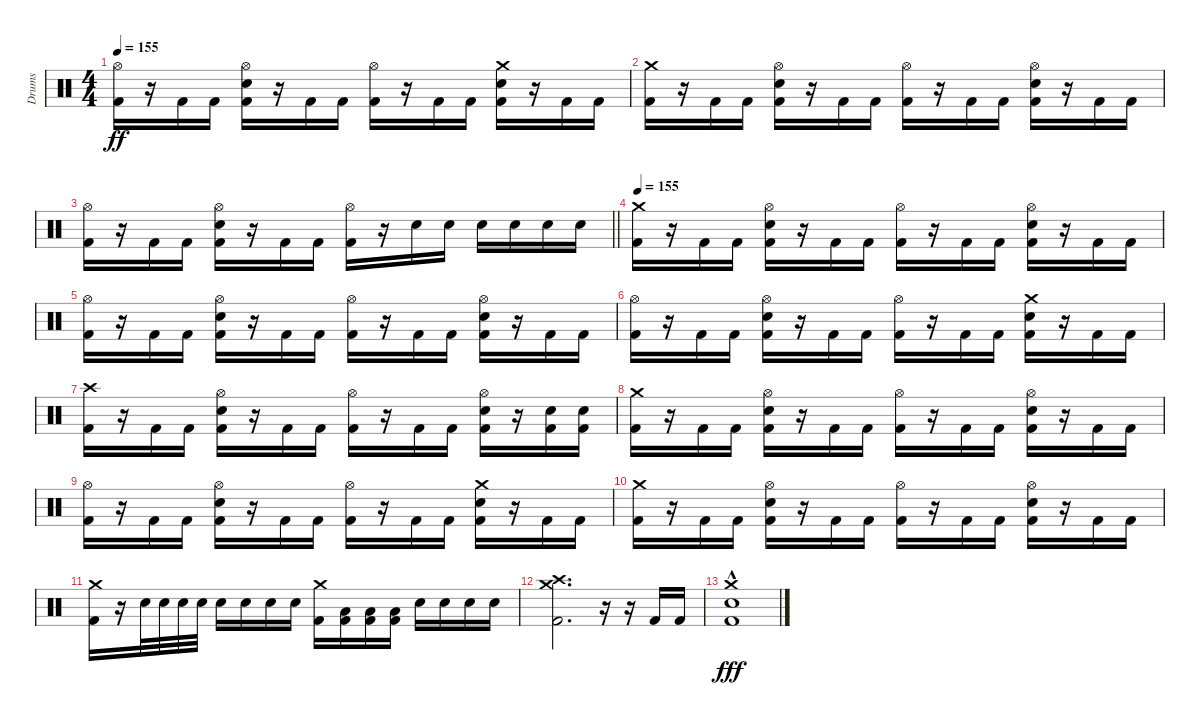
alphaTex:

\track ("Drums" "Drums") {solo instrument percussion}
\staff {score}
\articulation defaults
\ts (4 4)
\tempo 155
\clef neutral
\ks c
("Hi-Hat (open)" "Kick (hit) 2").16{dy ff} r.16 "Kick (hit) 2".16 "Kick (hit) 2".16 ("Hi-Hat (open)" "Electric Snare (hit)" "Kick (hit) 2").16 r.16 "Kick (hit) 2".16 "Kick (hit) 2".16 ("Hi-Hat (open)" "Kick (hit) 2").16 r.16 "Kick (hit) 2".16 "Kick (hit) 2".16 ("Electric Snare (hit)" "Crash medium (hit)" "Kick (hit) 2").16 r.16 "Kick (hit) 2".16 "Kick (hit) 2".16 |
("Crash medium (hit)" "Kick (hit) 2").16 r.16 "Kick (hit) 2".16 "Kick (hit) 2".16 ("Hi-Hat (open)" "Electric Snare (hit)" "Kick (hit) 2").16 r.16 "Kick (hit) 2".16 "Kick (hit) 2".16 ("Hi-Hat (open)" "Kick (hit) 2").16 r.16 "Kick (hit) 2".16 "Kick (hit) 2".16 ("Electric Snare (hit)" "Hi-Hat (open)" "Kick (hit) 2").16 r.16 "Kick (hit) 2".16 "Kick (hit) 2".16 |
\barLineRight lightlight
("Hi-Hat (open)" "Kick (hit) 2").16 r.16 "Kick (hit) 2".16 "Kick (hit) 2".16 ("Hi-Hat (open)" "Electric Snare (hit)" "Kick (hit) 2").16 r.16 "Kick (hit) 2".16 "Kick (hit) 2".16 ("Hi-Hat (open)" "Kick (hit) 2").16 r.16 "Electric Snare (hit)".16 "Electric Snare (hit)".16 "Electric Snare (hit)".16 "Electric Snare (hit)".16 "Electric Snare (hit)".16 "Electric Snare (hit)".16 |
\section ("" "")
\tempo 155
("Crash medium (hit)" "Kick (hit) 2").16 r.16 "Kick (hit) 2".16 "Kick (hit) 2".16 ("Hi-Hat (open)" "Electric Snare (hit)" "Kick (hit) 2").16 r.16 "Kick (hit) 2".16 "Kick (hit) 2".16 ("Hi-Hat (open)" "Kick (hit) 2").16 r.16 "Kick (hit) 2".16 "Kick (hit) 2".16 ("Electric Snare (hit)" "Hi-Hat (open)" "Kick (hit) 2").16 r.16 "Kick (hit) 2".16 "Kick (hit) 2".16 |
("Hi-Hat (open)" "Kick (hit) 2").16 r.16 "Kick (hit) 2".16 "Kick (hit) 2".16 ("Hi-Hat (open)" "Electric Snare (hit)" "Kick (hit) 2").16 r.16 "Kick (hit) 2".16 "Kick (hit) 2".16 ("Hi-Hat (open)" "Kick (hit) 2").16 r.16 "Kick (hit) 2".16 "Kick (hit) 2".16 ("Electric Snare (hit)" "Hi-Hat (open)" "Kick (hit) 2").16 r.16 "Kick (hit) 2".16 "Kick (hit) 2".16 |
("Hi-Hat (open)" "Kick (hit) 2").16 r.16 "Kick (hit) 2".16 "Kick (hit) 2".16 ("Hi-Hat (open)" "Electric Snare (hit)" "Kick (hit) 2").16 r.16 "Kick (hit) 2".16 "Kick (hit) 2".16 ("Hi-Hat (open)" "Kick (hit) 2").16 r.16 "Kick (hit) 2".16 "Kick (hit) 2".16 ("Electric Snare (hit)" "Crash medium (hit)" "Kick (hit) 2").16 r.16 "Kick (hit) 2".16 "Kick (hit) 2".16 |
("Crash high (hit)" "Kick (hit) 2").16 r.16 "Kick (hit) 2".16 "Kick (hit) 2".16 ("Hi-Hat (open)" "Electric Snare (hit)" "Kick (hit) 2").16 r.16 "Kick (hit) 2".16 "Kick (hit) 2".16 ("Hi-Hat (open)" "Kick (hit) 2").16 r.16 "Kick (hit) 2".16 "Kick (hit) 2".16 ("Electric Snare (hit)" "Hi-Hat (open)" "Kick (hit) 2").16 r.16 ("Electric Snare (hit)" "Kick (hit) 2").16 ("Electric Snare (hit)" "Kick (hit) 2").16 |
("Crash medium (hit)" "Kick (hit) 2").16 r.16 "Kick (hit) 2".16 "Kick (hit) 2".16 ("Hi-Hat (open)" "Electric Snare (hit)" "Kick (hit) 2").16 r.16 "Kick (hit) 2".16 "Kick (hit) 2".16 ("Hi-Hat (open)" "Kick (hit) 2").16 r.16 "Kick (hit) 2".16 "Kick (hit) 2".16 ("Electric Snare (hit)" "Hi-Hat (open)" "Kick (hit) 2").16 r.16 "Kick (hit) 2".16 "Kick (hit) 2".16 |
("Hi-Hat (open)" "Kick (hit) 2").16 r.16 "Kick (hit) 2".16 "Kick (hit) 2".16 ("Hi-Hat (open)" "Electric Snare (hit)" "Kick (hit) 2").16 r.16 "Kick (hit) 2".16 "Kick (hit) 2".16 ("Hi-Hat (open)" "Kick (hit) 2").16 r.16 "Kick (hit) 2".16 "Kick (hit) 2".16 ("Electric Snare (hit)" "Crash medium (hit)" "Kick (hit) 2").16 r.16 "Kick (hit) 2".16 "Kick (hit) 2".16 |
("Crash medium (hit)" "Kick (hit) 2").16 r.16 "Kick (hit) 2".16 "Kick (hit) 2".16 ("Hi-Hat (open)" "Electric Snare (hit)" "Kick (hit) 2").16 r.16 "Kick (hit) 2".16 "Kick (hit) 2".16 ("Hi-Hat (open)" "Kick (hit) 2").16 r.16 "Kick (hit) 2".16 "Kick (hit) 2".16 ("Electric Snare (hit)" "Hi-Hat (open)" "Kick (hit) 2").16 r.16 "Kick (hit) 2".16 "Kick (hit) 2".16 |
("Crash medium (hit)" "Kick (hit) 2").16 r.16 "Electric Snare (hit)".32 "Electric Snare (hit)".32 "Electric Snare (hit)".32 "Electric Snare (hit)".32 "Electric Snare (hit)".16 "Electric Snare (hit)".16 "Electric Snare (hit)".16 "Electric Snare (hit)".16 ("Crash medium (hit)" "Kick (hit) 2").16 ("Low Tom (hit)" "Kick (hit) 2").16 ("Low Tom (hit)" "Kick (hit) 2").16 ("Low Tom (hit)" "Kick (hit) 2").16 "Electric Snare (hit)".16 "Electric Snare (hit)".16 "Electric Snare (hit)".16 "Electric Snare (hit)".16 |
("Crash high (hit)" "Crash medium (hit)" "Kick (hit) 2").2{d} r.16 r.16 "Kick (hit) 2".16 "Kick (hit) 2".16 |
("Kick (hit) 2"{hac} "Crash medium (hit)"{hac} "Electric Snare (hit)"{hac}).1{dy fff}
